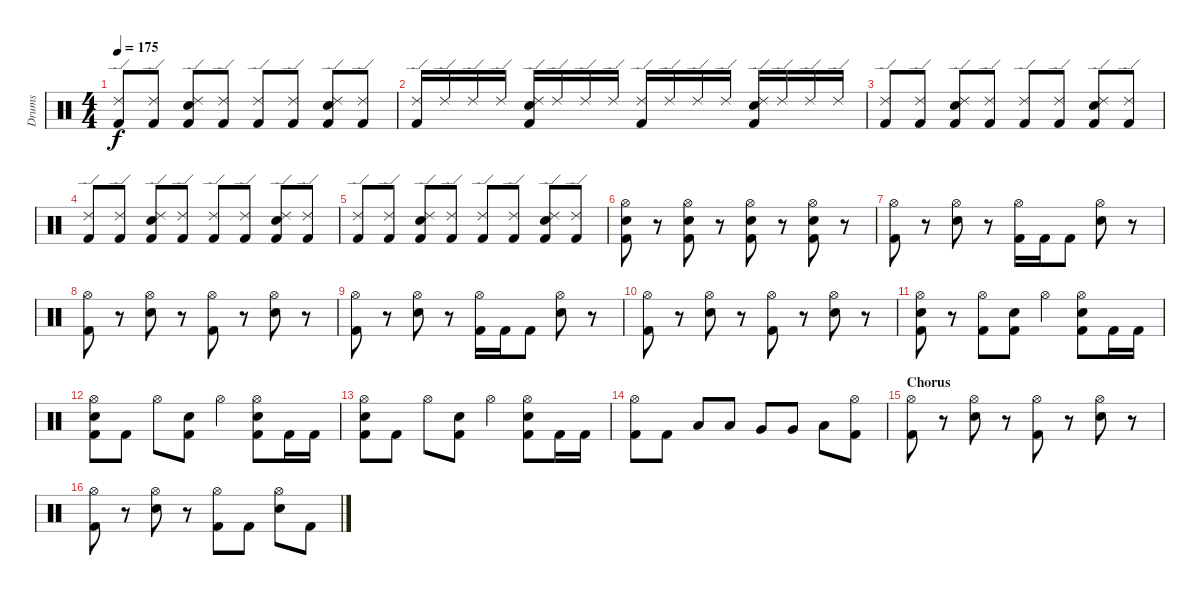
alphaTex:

\track ("Drums" "Drums") {instrument percussion}
\staff {score}
\articulation defaults
\ts (4 4)
\tempo 175
\clef neutral
\ks c
("Kick (hit) 2" "Ride (edge) 2").8{dy f} ("Kick (hit) 2" "Ride (edge) 2").8 ("Kick (hit) 2" "Electric Snare (hit)" "Ride (edge) 2").8 ("Kick (hit) 2" "Ride (edge) 2").8 ("Kick (hit) 2" "Ride (edge) 2").8 ("Kick (hit) 2" "Ride (edge) 2").8 ("Kick (hit) 2" "Electric Snare (hit)" "Ride (edge) 2").8 ("Kick (hit) 2" "Ride (edge) 2").8 |
("Kick (hit) 2" "Ride (edge) 2").16 "Ride (edge) 2".16 "Ride (edge) 2".16 "Ride (edge) 2".16 ("Kick (hit) 2" "Electric Snare (hit)" "Ride (edge) 2").16 "Ride (edge) 2".16 "Ride (edge) 2".16 "Ride (edge) 2".16 ("Kick (hit) 2" "Ride (edge) 2").16 "Ride (edge) 2".16 "Ride (edge) 2".16 "Ride (edge) 2".16 ("Kick (hit) 2" "Electric Snare (hit)" "Ride (edge) 2").16 "Ride (edge) 2".16 "Ride (edge) 2".16 "Ride (edge) 2".16 |
("Kick (hit) 2" "Ride (edge) 2").8 ("Kick (hit) 2" "Ride (edge) 2").8 ("Kick (hit) 2" "Electric Snare (hit)" "Ride (edge) 2").8 ("Kick (hit) 2" "Ride (edge) 2").8 ("Kick (hit) 2" "Ride (edge) 2").8 ("Kick (hit) 2" "Ride (edge) 2").8 ("Kick (hit) 2" "Electric Snare (hit)" "Ride (edge) 2").8 ("Kick (hit) 2" "Ride (edge) 2").8 |
("Kick (hit) 2" "Ride (edge) 2").8 ("Kick (hit) 2" "Ride (edge) 2").8 ("Kick (hit) 2" "Electric Snare (hit)" "Ride (edge) 2").8 ("Kick (hit) 2" "Ride (edge) 2").8 ("Kick (hit) 2" "Ride (edge) 2").8 ("Kick (hit) 2" "Ride (edge) 2").8 ("Kick (hit) 2" "Electric Snare (hit)" "Ride (edge) 2").8 ("Kick (hit) 2" "Ride (edge) 2").8 |
("Kick (hit) 2" "Ride (edge) 2").8 ("Kick (hit) 2" "Ride (edge) 2").8 ("Kick (hit) 2" "Electric Snare (hit)" "Ride (edge) 2").8 ("Kick (hit) 2" "Ride (edge) 2").8 ("Kick (hit) 2" "Ride (edge) 2").8 ("Kick (hit) 2" "Ride (edge) 2").8 ("Kick (hit) 2" "Electric Snare (hit)" "Ride (edge) 2").8 ("Kick (hit) 2" "Ride (edge) 2").8 |
("Kick (hit) 2" "Electric Snare (hit)" "Hi-Hat (open)").8 r.8 ("Kick (hit) 2" "Electric Snare (hit)" "Hi-Hat (open)").8 r.8 ("Kick (hit) 2" "Electric Snare (hit)" "Hi-Hat (open)").8 r.8 ("Kick (hit) 2" "Electric Snare (hit)" "Hi-Hat (open)").8 r.8 |
("Kick (hit) 2" "Hi-Hat (open)").8 r.8 ("Electric Snare (hit)" "Hi-Hat (open)").8 r.8 ("Kick (hit) 2" "Hi-Hat (open)").16 "Kick (hit) 2".16 "Kick (hit) 2".8 ("Electric Snare (hit)" "Hi-Hat (open)").8 r.8 |
("Kick (hit) 2" "Hi-Hat (open)").8 r.8 ("Electric Snare (hit)" "Hi-Hat (open)").8 r.8 ("Kick (hit) 2" "Hi-Hat (open)").8 r.8 ("Electric Snare (hit)" "Hi-Hat (open)").8 r.8 |
("Kick (hit) 2" "Hi-Hat (open)").8 r.8 ("Electric Snare (hit)" "Hi-Hat (open)").8 r.8 ("Kick (hit) 2" "Hi-Hat (open)").16 "Kick (hit) 2".16 "Kick (hit) 2".8 ("Electric Snare (hit)" "Hi-Hat (open)").8 r.8 |
("Kick (hit) 2" "Hi-Hat (open)").8 r.8 ("Electric Snare (hit)" "Hi-Hat (open)").8 r.8 ("Kick (hit) 2" "Hi-Hat (open)").8 r.8 ("Electric Snare (hit)" "Hi-Hat (open)").8 r.8 |
("Kick (hit) 2" "Electric Snare (hit)" "Hi-Hat (open)").8 r.8 ("Kick (hit) 2" "Hi-Hat (open)").8 ("Kick (hit) 2" "Electric Snare (hit)").8 "Hi-Hat (open)".4 ("Kick (hit) 2" "Electric Snare (hit)" "Hi-Hat (open)").8 "Kick (hit) 2".16 "Kick (hit) 2".16 |
("Kick (hit) 2" "Electric Snare (hit)" "Hi-Hat (open)").8 "Kick (hit) 2".8 "Hi-Hat (open)".8 ("Kick (hit) 2" "Electric Snare (hit)").8 "Hi-Hat (open)".4 ("Kick (hit) 2" "Electric Snare (hit)" "Hi-Hat (open)").8 "Kick (hit) 2".16 "Kick (hit) 2".16 |
("Kick (hit) 2" "Electric Snare (hit)" "Hi-Hat (open)").8 "Kick (hit) 2".8 "Hi-Hat (open)".8 ("Kick (hit) 2" "Electric Snare (hit)").8 "Hi-Hat (open)".4 ("Kick (hit) 2" "Electric Snare (hit)" "Hi-Hat (open)").8 "Kick (hit) 2".16 "Kick (hit) 2".16 |
("Kick (hit) 2" "Hi-Hat (open)").8 "Kick (hit) 2".8 "Low Tom (hit)".8 "Low Tom (hit)".8 "Very Low Tom (hit)".8 "Very Low Tom (hit)".8 "Low Floor Tom (hit)".8 ("Kick (hit) 2" "Hi-Hat (open)").8 |
\section ("" "Chorus")
("Kick (hit) 2" "Hi-Hat (open)").8 r.8 ("Electric Snare (hit)" "Hi-Hat (open)").8 r.8 ("Kick (hit) 2" "Hi-Hat (open)").8 r.8 ("Electric Snare (hit)" "Hi-Hat (open)").8 r.8 |
("Kick (hit) 2" "Hi-Hat (open)").8 r.8 ("Electric Snare (hit)" "Hi-Hat (open)").8 r.8 ("Kick (hit) 2" "Hi-Hat (open)").8 "Kick (hit) 2".8 ("Electric Snare (hit)" "Hi-Hat (open)").8 "Kick (hit) 2".8
